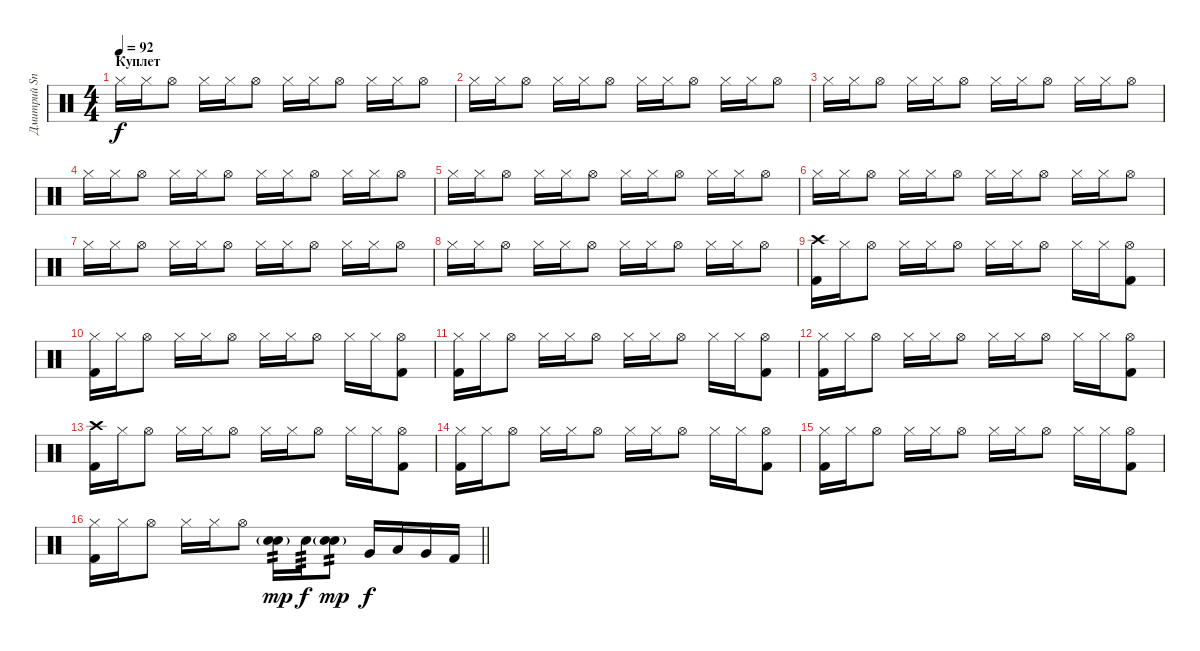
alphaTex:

\track ("Дмитрий Snake Хакимов" "Дмитрий Sn") {instrument percussion}
\staff {score}
\articulation defaults
\ts (4 4)
\section ("" "Куплет")
\tempo 92
\clef neutral
\ks c "Hi-Hat (closed)".16{dy f} "Hi-Hat (closed)".16 "Hi-Hat (open)".8 "Hi-Hat (closed)".16 "Hi-Hat (closed)".16 "Hi-Hat (open)".8 "Hi-Hat (closed)".16 "Hi-Hat (closed)".16 "Hi-Hat (open)".8 "Hi-Hat (closed)".16 "Hi-Hat (closed)".16 "Hi-Hat (open)".8
|
"Hi-Hat (closed)".16 "Hi-Hat (closed)".16 "Hi-Hat (open)".8 "Hi-Hat (closed)".16 "Hi-Hat (closed)".16 "Hi-Hat (open)".8 "Hi-Hat (closed)".16 "Hi-Hat (closed)".16 "Hi-Hat (open)".8 "Hi-Hat (closed)".16 "Hi-Hat (closed)".16 "Hi-Hat (open)".8 |
"Hi-Hat (closed)".16 "Hi-Hat (closed)".16 "Hi-Hat (open)".8 "Hi-Hat (closed)".16 "Hi-Hat (closed)".16 "Hi-Hat (open)".8 "Hi-Hat (closed)".16 "Hi-Hat (closed)".16 "Hi-Hat (open)".8 "Hi-Hat (closed)".16 "Hi-Hat (closed)".16 "Hi-Hat (open)".8 |
"Hi-Hat (closed)".16 "Hi-Hat (closed)".16 "Hi-Hat (open)".8 "Hi-Hat (closed)".16 "Hi-Hat (closed)".16 "Hi-Hat (open)".8 "Hi-Hat (closed)".16 "Hi-Hat (closed)".16 "Hi-Hat (open)".8 "Hi-Hat (closed)".16 "Hi-Hat (closed)".16 "Hi-Hat (open)".8 |
"Hi-Hat (closed)".16 "Hi-Hat (closed)".16 "Hi-Hat (open)".8 "Hi-Hat (closed)".16 "Hi-Hat (closed)".16 "Hi-Hat (open)".8 "Hi-Hat (closed)".16 "Hi-Hat (closed)".16 "Hi-Hat (open)".8 "Hi-Hat (closed)".16 "Hi-Hat (closed)".16 "Hi-Hat (open)".8 |
"Hi-Hat (closed)".16 "Hi-Hat (closed)".16 "Hi-Hat (open)".8 "Hi-Hat (closed)".16 "Hi-Hat (closed)".16 "Hi-Hat (open)".8 "Hi-Hat (closed)".16 "Hi-Hat (closed)".16 "Hi-Hat (open)".8 "Hi-Hat (closed)".16 "Hi-Hat (closed)".16 "Hi-Hat (open)".8 |
"Hi-Hat (closed)".16 "Hi-Hat (closed)".16 "Hi-Hat (open)".8 "Hi-Hat (closed)".16 "Hi-Hat (closed)".16 "Hi-Hat (open)".8 "Hi-Hat (closed)".16 "Hi-Hat (closed)".16 "Hi-Hat (open)".8 "Hi-Hat (closed)".16 "Hi-Hat (closed)".16 "Hi-Hat (open)".8 |
"Hi-Hat (closed)".16 "Hi-Hat (closed)".16 "Hi-Hat (open)".8 "Hi-Hat (closed)".16 "Hi-Hat (closed)".16 "Hi-Hat (open)".8 "Hi-Hat (closed)".16 "Hi-Hat (closed)".16 "Hi-Hat (open)".8 "Hi-Hat (closed)".16 "Hi-Hat (closed)".16 "Hi-Hat (open)".8 |
("Crash high (hit)" "Kick (hit) 2").16 "Hi-Hat (closed)".16 "Hi-Hat (open)".8 "Hi-Hat (closed)".16 "Hi-Hat (closed)".16 "Hi-Hat (open)".8 "Hi-Hat (closed)".16 "Hi-Hat (closed)".16 "Hi-Hat (open)".8 "Hi-Hat (closed)".16 "Hi-Hat (closed)".16 ("Hi-Hat (open)" "Kick (hit) 2").8 |
("Hi-Hat (closed)" "Kick (hit) 2").16 "Hi-Hat (closed)".16 "Hi-Hat (open)".8 "Hi-Hat (closed)".16 "Hi-Hat (closed)".16 "Hi-Hat (open)".8 "Hi-Hat (closed)".16 "Hi-Hat (closed)".16 "Hi-Hat (open)".8 "Hi-Hat (closed)".16 "Hi-Hat (closed)".16 ("Hi-Hat (open)" "Kick (hit) 2").8 |
("Hi-Hat (closed)" "Kick (hit) 2").16 "Hi-Hat (closed)".16 "Hi-Hat (open)".8 "Hi-Hat (closed)".16 "Hi-Hat (closed)".16 "Hi-Hat (open)".8 "Hi-Hat (closed)".16 "Hi-Hat (closed)".16 "Hi-Hat (open)".8 "Hi-Hat (closed)".16 "Hi-Hat (closed)".16 ("Hi-Hat (open)" "Kick (hit) 2").8 |
("Hi-Hat (closed)" "Kick (hit) 2").16 "Hi-Hat (closed)".16 "Hi-Hat (open)".8 "Hi-Hat (closed)".16 "Hi-Hat (closed)".16 "Hi-Hat (open)".8 "Hi-Hat (closed)".16 "Hi-Hat (closed)".16 "Hi-Hat (open)".8 "Hi-Hat (closed)".16 "Hi-Hat (closed)".16 ("Hi-Hat (open)" "Kick (hit) 2").8 |
("Crash high (hit)" "Kick (hit) 2").16 "Hi-Hat (closed)".16 "Hi-Hat (open)".8 "Hi-Hat (closed)".16 "Hi-Hat (closed)".16 "Hi-Hat (open)".8 "Hi-Hat (closed)".16 "Hi-Hat (closed)".16 "Hi-Hat (open)".8 "Hi-Hat (closed)".16 "Hi-Hat (closed)".16 ("Hi-Hat (open)" "Kick (hit) 2").8 |
("Hi-Hat (closed)" "Kick (hit) 2").16 "Hi-Hat (closed)".16 "Hi-Hat (open)".8 "Hi-Hat (closed)".16 "Hi-Hat (closed)".16 "Hi-Hat (open)".8 "Hi-Hat (closed)".16 "Hi-Hat (closed)".16 "Hi-Hat (open)".8 "Hi-Hat (closed)".16 "Hi-Hat (closed)".16 ("Hi-Hat (open)" "Kick (hit) 2").8 |
("Hi-Hat (closed)" "Kick (hit) 2").16 "Hi-Hat (closed)".16 "Hi-Hat (open)".8 "Hi-Hat (closed)".16 "Hi-Hat (closed)".16 "Hi-Hat (open)".8 "Hi-Hat (closed)".16 "Hi-Hat (closed)".16 "Hi-Hat (open)".8 "Hi-Hat (closed)".16 "Hi-Hat (closed)".16 ("Hi-Hat (open)" "Kick (hit) 2").8 |
\barLineRight lightlight
("Hi-Hat (closed)" "Kick (hit) 2").16 "Hi-Hat (closed)".16 "Hi-Hat (open)".8 "Hi-Hat (closed)".16 "Hi-Hat (closed)".16 "Hi-Hat (open)".8 ("Snare (hit) 2"{g} "Electric Snare (hit)").16{tp 2 dy mp} "Electric Snare (hit)".16{tp 3 dy f} ("Snare (hit) 2"{g} "Electric Snare (hit)").8{tp 2 dy mp} "Very Low Tom (hit)".16{dy f} "Low Tom (hit)".16 "Very Low Tom (hit)".16 "Kick (hit) 2".16
